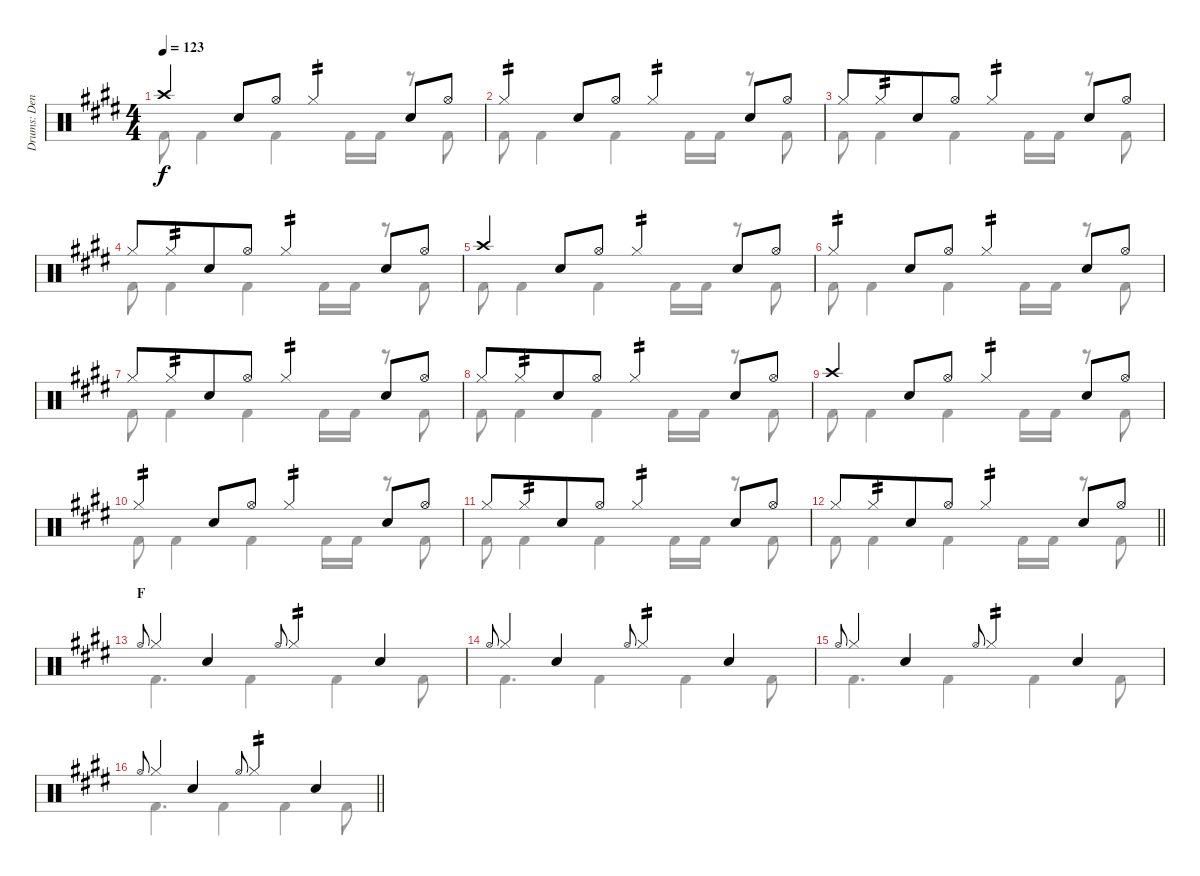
\track ("Drums: Denny" "Drums: Den") {instrument percussion}
\staff {score}
\articulation defaults
\voice
\ts (4 4)
\tempo 123
\clef neutral
\ks e "Crash high (hit)".4{dy f} "Snare (hit) 2".8 "Hi-Hat (open)".8 "Hi-Hat (closed)".4{tp 2} "Snare (hit) 2".8 "Hi-Hat (open)".8
|
"Hi-Hat (closed)".4{tp 2} "Snare (hit) 2".8 "Hi-Hat (open)".8 "Hi-Hat (closed)".4{tp 2} "Snare (hit) 2".8 "Hi-Hat (open)".8 |
"Hi-Hat (closed)".8 "Hi-Hat (closed)".8{tp 2 beam merge} "Snare (hit) 2".8 "Hi-Hat (open)".8 "Hi-Hat (closed)".4{tp 2} "Snare (hit) 2".8 "Hi-Hat (open)".8 |
"Hi-Hat (closed)".8 "Hi-Hat (closed)".8{tp 2 beam merge} "Snare (hit) 2".8 "Hi-Hat (open)".8 "Hi-Hat (closed)".4{tp 2} "Snare (hit) 2".8 "Hi-Hat (open)".8 |
"Crash high (hit)".4 "Snare (hit) 2".8 "Hi-Hat (open)".8 "Hi-Hat (closed)".4{tp 2} "Snare (hit) 2".8 "Hi-Hat (open)".8 |
"Hi-Hat (closed)".4{tp 2} "Snare (hit) 2".8 "Hi-Hat (open)".8 "Hi-Hat (closed)".4{tp 2} "Snare (hit) 2".8 "Hi-Hat (open)".8 |
"Hi-Hat (closed)".8 "Hi-Hat (closed)".8{tp 2 beam merge} "Snare (hit) 2".8 "Hi-Hat (open)".8 "Hi-Hat (closed)".4{tp 2} "Snare (hit) 2".8 "Hi-Hat (open)".8 |
"Hi-Hat (closed)".8 "Hi-Hat (closed)".8{tp 2 beam merge} "Snare (hit) 2".8 "Hi-Hat (open)".8 "Hi-Hat (closed)".4{tp 2} "Snare (hit) 2".8 "Hi-Hat (open)".8 |
"Crash high (hit)".4 "Snare (hit) 2".8 "Hi-Hat (open)".8 "Hi-Hat (closed)".4{tp 2} "Snare (hit) 2".8 "Hi-Hat (open)".8 |
"Hi-Hat (closed)".4{tp 2} "Snare (hit) 2".8 "Hi-Hat (open)".8 "Hi-Hat (closed)".4{tp 2} "Snare (hit) 2".8 "Hi-Hat (open)".8 |
"Hi-Hat (closed)".8 "Hi-Hat (closed)".8{tp 2 beam merge} "Snare (hit) 2".8 "Hi-Hat (open)".8 "Hi-Hat (closed)".4{tp 2} "Snare (hit) 2".8 "Hi-Hat (open)".8 |
\barLineRight lightlight "Hi-Hat (closed)".8 "Hi-Hat (closed)".8{tp 2 beam merge} "Snare (hit) 2".8 "Hi-Hat (open)".8 "Hi-Hat (closed)".4{tp 2} "Snare (hit) 2".8 "Hi-Hat (open)".8
|
\section ("" "F")
"Hi-Hat (open)".8{gr onbeat} "Hi-Hat (closed)".4 "Snare (hit) 2".4 "Hi-Hat (open)".8{gr onbeat} "Hi-Hat (closed)".4{tp 2} "Snare (hit) 2".4 |
"Hi-Hat (open)".8{gr onbeat} "Hi-Hat (closed)".4 "Snare (hit) 2".4 "Hi-Hat (open)".8{gr onbeat} "Hi-Hat (closed)".4{tp 2} "Snare (hit) 2".4 |
"Hi-Hat (open)".8{gr onbeat} "Hi-Hat (closed)".4 "Snare (hit) 2".4 "Hi-Hat (open)".8{gr onbeat} "Hi-Hat (closed)".4{tp 2} "Snare (hit) 2".4 |
\barLineRight lightlight "Hi-Hat (open)".8{gr onbeat} "Hi-Hat (closed)".4 "Snare (hit) 2".4 "Hi-Hat (open)".8{gr onbeat} "Hi-Hat (closed)".4{tp 2} "Snare (hit) 2".4
\voice
\clef neutral
\ottava regular
\simile none
\ks e "Kick (hit) 2".8{dy f} "Kick (hit) 2".4 "Kick (hit) 2".4 "Kick (hit) 2".16 "Kick (hit) 2".16
r.8 "Kick (hit) 2".8 |
"Kick (hit) 2".8 "Kick (hit) 2".4 "Kick (hit) 2".4 "Kick (hit) 2".16 "Kick (hit) 2".16 r.8 "Kick (hit) 2".8 |
"Kick (hit) 2".8 "Kick (hit) 2".4 "Kick (hit) 2".4 "Kick (hit) 2".16 "Kick (hit) 2".16 r.8 "Kick (hit) 2".8 |
"Kick (hit) 2".8 "Kick (hit) 2".4 "Kick (hit) 2".4 "Kick (hit) 2".16 "Kick (hit) 2".16 r.8 "Kick (hit) 2".8 |
"Kick (hit) 2".8 "Kick (hit) 2".4 "Kick (hit) 2".4 "Kick (hit) 2".16 "Kick (hit) 2".16 r.8 "Kick (hit) 2".8 |
"Kick (hit) 2".8 "Kick (hit) 2".4 "Kick (hit) 2".4 "Kick (hit) 2".16 "Kick (hit) 2".16 r.8 "Kick (hit) 2".8 |
"Kick (hit) 2".8 "Kick (hit) 2".4 "Kick (hit) 2".4 "Kick (hit) 2".16 "Kick (hit) 2".16 r.8 "Kick (hit) 2".8 |
"Kick (hit) 2".8 "Kick (hit) 2".4 "Kick (hit) 2".4 "Kick (hit) 2".16 "Kick (hit) 2".16 r.8 "Kick (hit) 2".8 |
"Kick (hit) 2".8 "Kick (hit) 2".4 "Kick (hit) 2".4 "Kick (hit) 2".16 "Kick (hit) 2".16 r.8 "Kick (hit) 2".8 |
"Kick (hit) 2".8 "Kick (hit) 2".4 "Kick (hit) 2".4 "Kick (hit) 2".16 "Kick (hit) 2".16 r.8 "Kick (hit) 2".8 |
"Kick (hit) 2".8 "Kick (hit) 2".4 "Kick (hit) 2".4 "Kick (hit) 2".16 "Kick (hit) 2".16 r.8 "Kick (hit) 2".8 |
\barLineRight lightlight "Kick (hit) 2".8 "Kick (hit) 2".4 "Kick (hit) 2".4 "Kick (hit) 2".16 "Kick (hit) 2".16
r.8 "Kick (hit) 2".8 |
"Kick (hit) 2".4{d} "Kick (hit) 2".4 "Kick (hit) 2".4 "Kick (hit) 2".8 |
"Kick (hit) 2".4{d} "Kick (hit) 2".4 "Kick (hit) 2".4 "Kick (hit) 2".8 |
"Kick (hit) 2".4{d} "Kick (hit) 2".4 "Kick (hit) 2".4 "Kick (hit) 2".8 |
\barLineRight lightlight "Kick (hit) 2".4{d} "Kick (hit) 2".4 "Kick (hit) 2".4 "Kick (hit) 2".8
